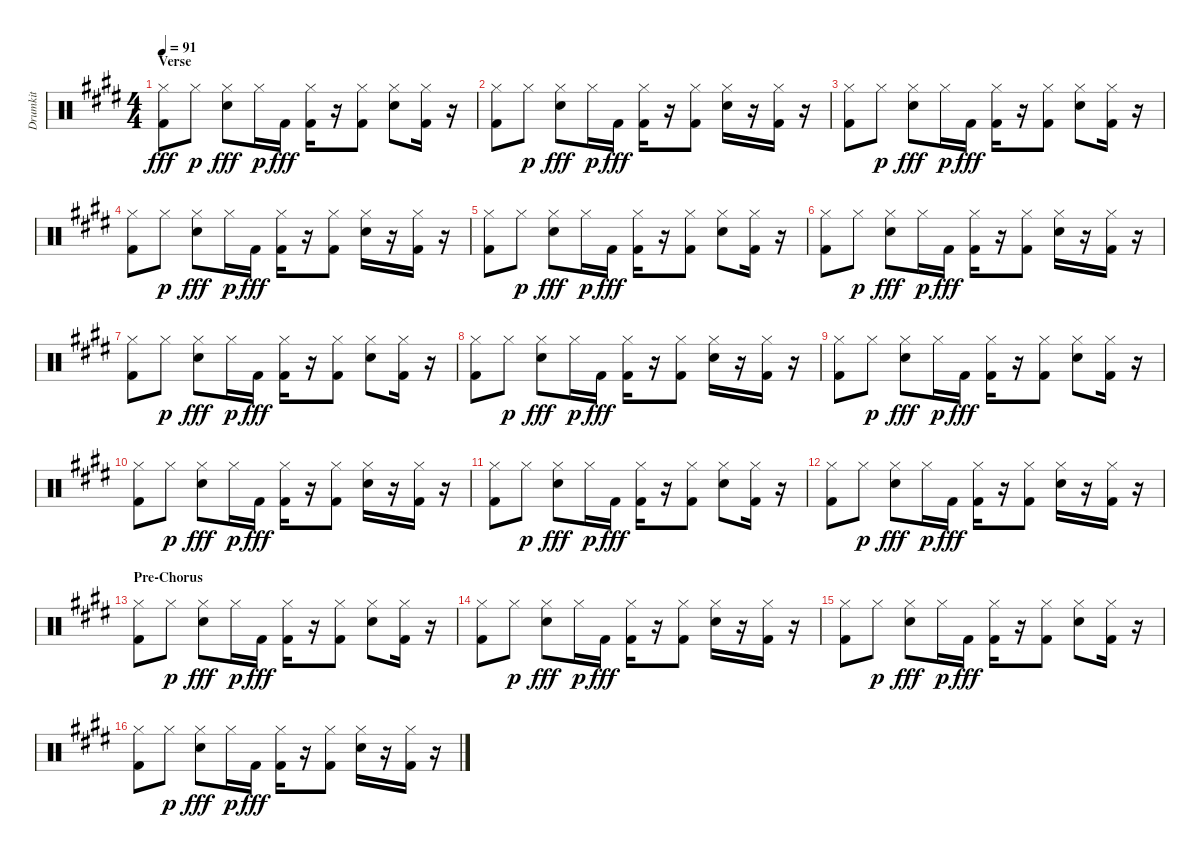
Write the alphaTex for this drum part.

\track ("Drumkit" "Drumkit") {instrument percussion}
\staff {score}
\articulation defaults
\ts (4 4)
\section ("" "Verse")
\tempo 91
\clef neutral
\ks e
("Kick (hit) 2" "Hi-Hat (closed)").8{dy fff} "Hi-Hat (closed)".8{dy p} ("Snare (hit) 2" "Hi-Hat (closed)").8{dy fff} "Hi-Hat (closed)".16{dy p} "Kick (hit) 2".16{dy fff} ("Kick (hit) 2" "Hi-Hat (closed)").16 r.16 ("Kick (hit) 2" "Hi-Hat (closed)").8 ("Snare (hit) 2" "Hi-Hat (closed)").8 ("Kick (hit) 2" "Hi-Hat (closed)").16 r.16 |
("Kick (hit) 2" "Hi-Hat (closed)").8 "Hi-Hat (closed)".8{dy p} ("Snare (hit) 2" "Hi-Hat (closed)").8{dy fff} "Hi-Hat (closed)".16{dy p} "Kick (hit) 2".16{dy fff} ("Kick (hit) 2" "Hi-Hat (closed)").16 r.16 ("Kick (hit) 2" "Hi-Hat (closed)").8 ("Snare (hit) 2" "Hi-Hat (closed)").16 r.16 ("Kick (hit) 2" "Hi-Hat (closed)").16 r.16 |
("Kick (hit) 2" "Hi-Hat (closed)").8 "Hi-Hat (closed)".8{dy p} ("Snare (hit) 2" "Hi-Hat (closed)").8{dy fff} "Hi-Hat (closed)".16{dy p} "Kick (hit) 2".16{dy fff} ("Kick (hit) 2" "Hi-Hat (closed)").16 r.16 ("Kick (hit) 2" "Hi-Hat (closed)").8 ("Snare (hit) 2" "Hi-Hat (closed)").8 ("Kick (hit) 2" "Hi-Hat (closed)").16 r.16 |
("Kick (hit) 2" "Hi-Hat (closed)").8 "Hi-Hat (closed)".8{dy p} ("Snare (hit) 2" "Hi-Hat (closed)").8{dy fff} "Hi-Hat (closed)".16{dy p} "Kick (hit) 2".16{dy fff} ("Kick (hit) 2" "Hi-Hat (closed)").16 r.16 ("Kick (hit) 2" "Hi-Hat (closed)").8 ("Snare (hit) 2" "Hi-Hat (closed)").16 r.16 ("Kick (hit) 2" "Hi-Hat (closed)").16 r.16 |
("Kick (hit) 2" "Hi-Hat (closed)").8 "Hi-Hat (closed)".8{dy p} ("Snare (hit) 2" "Hi-Hat (closed)").8{dy fff} "Hi-Hat (closed)".16{dy p} "Kick (hit) 2".16{dy fff} ("Kick (hit) 2" "Hi-Hat (closed)").16 r.16 ("Kick (hit) 2" "Hi-Hat (closed)").8 ("Snare (hit) 2" "Hi-Hat (closed)").8 ("Kick (hit) 2" "Hi-Hat (closed)").16 r.16 |
("Kick (hit) 2" "Hi-Hat (closed)").8 "Hi-Hat (closed)".8{dy p} ("Snare (hit) 2" "Hi-Hat (closed)").8{dy fff} "Hi-Hat (closed)".16{dy p} "Kick (hit) 2".16{dy fff} ("Kick (hit) 2" "Hi-Hat (closed)").16 r.16 ("Kick (hit) 2" "Hi-Hat (closed)").8 ("Snare (hit) 2" "Hi-Hat (closed)").16 r.16 ("Kick (hit) 2" "Hi-Hat (closed)").16 r.16 |
("Kick (hit) 2" "Hi-Hat (closed)").8 "Hi-Hat (closed)".8{dy p} ("Snare (hit) 2" "Hi-Hat (closed)").8{dy fff} "Hi-Hat (closed)".16{dy p} "Kick (hit) 2".16{dy fff} ("Kick (hit) 2" "Hi-Hat (closed)").16 r.16 ("Kick (hit) 2" "Hi-Hat (closed)").8 ("Snare (hit) 2" "Hi-Hat (closed)").8 ("Kick (hit) 2" "Hi-Hat (closed)").16 r.16 |
("Kick (hit) 2" "Hi-Hat (closed)").8 "Hi-Hat (closed)".8{dy p} ("Snare (hit) 2" "Hi-Hat (closed)").8{dy fff} "Hi-Hat (closed)".16{dy p} "Kick (hit) 2".16{dy fff} ("Kick (hit) 2" "Hi-Hat (closed)").16 r.16 ("Kick (hit) 2" "Hi-Hat (closed)").8 ("Snare (hit) 2" "Hi-Hat (closed)").16 r.16 ("Kick (hit) 2" "Hi-Hat (closed)").16 r.16 |
("Kick (hit) 2" "Hi-Hat (closed)").8 "Hi-Hat (closed)".8{dy p} ("Snare (hit) 2" "Hi-Hat (closed)").8{dy fff} "Hi-Hat (closed)".16{dy p} "Kick (hit) 2".16{dy fff} ("Kick (hit) 2" "Hi-Hat (closed)").16 r.16 ("Kick (hit) 2" "Hi-Hat (closed)").8 ("Snare (hit) 2" "Hi-Hat (closed)").8 ("Kick (hit) 2" "Hi-Hat (closed)").16 r.16 |
("Kick (hit) 2" "Hi-Hat (closed)").8 "Hi-Hat (closed)".8{dy p} ("Snare (hit) 2" "Hi-Hat (closed)").8{dy fff} "Hi-Hat (closed)".16{dy p} "Kick (hit) 2".16{dy fff} ("Kick (hit) 2" "Hi-Hat (closed)").16 r.16 ("Kick (hit) 2" "Hi-Hat (closed)").8 ("Snare (hit) 2" "Hi-Hat (closed)").16 r.16 ("Kick (hit) 2" "Hi-Hat (closed)").16 r.16 |
("Kick (hit) 2" "Hi-Hat (closed)").8 "Hi-Hat (closed)".8{dy p} ("Snare (hit) 2" "Hi-Hat (closed)").8{dy fff} "Hi-Hat (closed)".16{dy p} "Kick (hit) 2".16{dy fff} ("Kick (hit) 2" "Hi-Hat (closed)").16 r.16 ("Kick (hit) 2" "Hi-Hat (closed)").8 ("Snare (hit) 2" "Hi-Hat (closed)").8 ("Kick (hit) 2" "Hi-Hat (closed)").16 r.16 |
("Kick (hit) 2" "Hi-Hat (closed)").8 "Hi-Hat (closed)".8{dy p} ("Snare (hit) 2" "Hi-Hat (closed)").8{dy fff} "Hi-Hat (closed)".16{dy p} "Kick (hit) 2".16{dy fff} ("Kick (hit) 2" "Hi-Hat (closed)").16 r.16 ("Kick (hit) 2" "Hi-Hat (closed)").8 ("Snare (hit) 2" "Hi-Hat (closed)").16 r.16 ("Kick (hit) 2" "Hi-Hat (closed)").16 r.16 |
\section ("" "Pre-Chorus")
("Kick (hit) 2" "Hi-Hat (closed)").8 "Hi-Hat (closed)".8{dy p} ("Snare (hit) 2" "Hi-Hat (closed)").8{dy fff} "Hi-Hat (closed)".16{dy p} "Kick (hit) 2".16{dy fff} ("Kick (hit) 2" "Hi-Hat (closed)").16 r.16 ("Kick (hit) 2" "Hi-Hat (closed)").8 ("Snare (hit) 2" "Hi-Hat (closed)").8 ("Kick (hit) 2" "Hi-Hat (closed)").16 r.16 |
("Kick (hit) 2" "Hi-Hat (closed)").8 "Hi-Hat (closed)".8{dy p} ("Snare (hit) 2" "Hi-Hat (closed)").8{dy fff} "Hi-Hat (closed)".16{dy p} "Kick (hit) 2".16{dy fff} ("Kick (hit) 2" "Hi-Hat (closed)").16 r.16 ("Kick (hit) 2" "Hi-Hat (closed)").8 ("Snare (hit) 2" "Hi-Hat (closed)").16 r.16 ("Kick (hit) 2" "Hi-Hat (closed)").16 r.16 |
("Kick (hit) 2" "Hi-Hat (closed)").8 "Hi-Hat (closed)".8{dy p} ("Snare (hit) 2" "Hi-Hat (closed)").8{dy fff} "Hi-Hat (closed)".16{dy p} "Kick (hit) 2".16{dy fff} ("Kick (hit) 2" "Hi-Hat (closed)").16 r.16 ("Kick (hit) 2" "Hi-Hat (closed)").8 ("Snare (hit) 2" "Hi-Hat (closed)").8 ("Kick (hit) 2" "Hi-Hat (closed)").16 r.16 |
("Kick (hit) 2" "Hi-Hat (closed)").8 "Hi-Hat (closed)".8{dy p} ("Snare (hit) 2" "Hi-Hat (closed)").8{dy fff} "Hi-Hat (closed)".16{dy p} "Kick (hit) 2".16{dy fff} ("Kick (hit) 2" "Hi-Hat (closed)").16 r.16 ("Kick (hit) 2" "Hi-Hat (closed)").8 ("Snare (hit) 2" "Hi-Hat (closed)").16 r.16 ("Kick (hit) 2" "Hi-Hat (closed)").16 r.16
